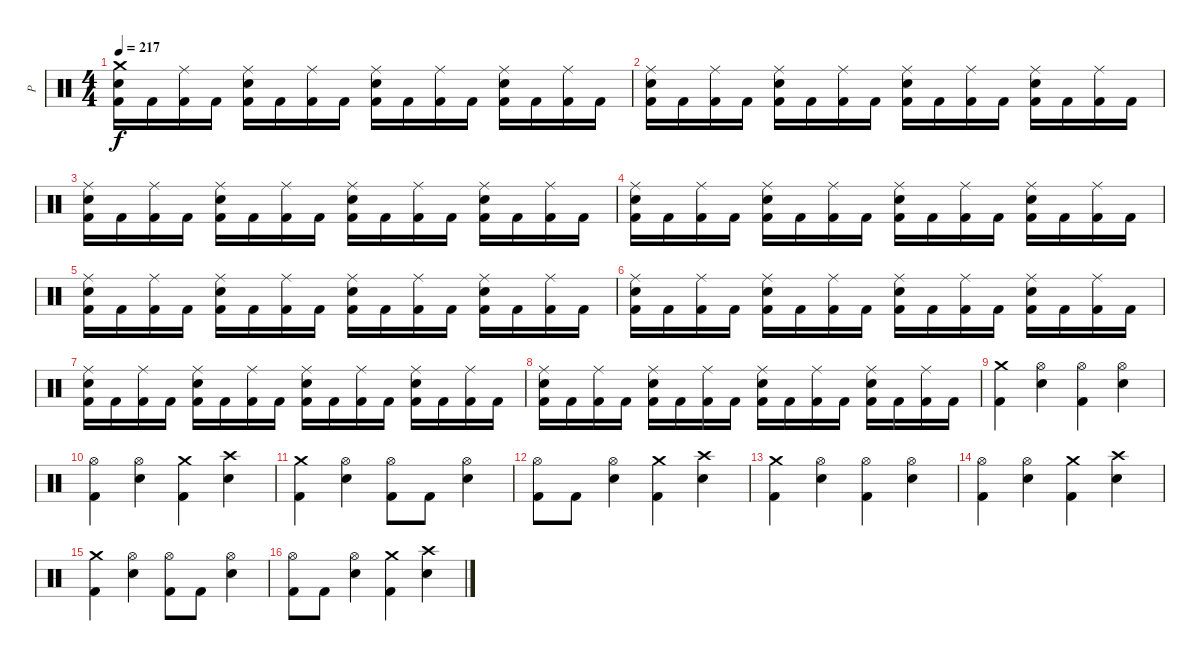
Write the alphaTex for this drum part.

\track ("P" "P") {instrument percussion}
\staff {score}
\articulation defaults
\ts (4 4)
\tempo 217
\clef neutral
\ks c
("Crash medium (hit)" "Electric Snare (hit)" "Kick (hit) 2").16{dy f} "Kick (hit) 2".16 ("Ride (middle)" "Kick (hit) 2").16 "Kick (hit) 2".16 ("Ride (middle)" "Electric Snare (hit)" "Kick (hit) 2").16 "Kick (hit) 2".16 ("Ride (middle)" "Kick (hit) 2").16 "Kick (hit) 2".16 ("Ride (middle)" "Electric Snare (hit)" "Kick (hit) 2").16 "Kick (hit) 2".16 ("Ride (middle)" "Kick (hit) 2").16 "Kick (hit) 2".16 ("Ride (middle)" "Electric Snare (hit)" "Kick (hit) 2").16 "Kick (hit) 2".16 ("Ride (middle)" "Kick (hit) 2").16 "Kick (hit) 2".16 |
("Ride (middle)" "Electric Snare (hit)" "Kick (hit) 2").16 "Kick (hit) 2".16 ("Ride (middle)" "Kick (hit) 2").16 "Kick (hit) 2".16 ("Ride (middle)" "Electric Snare (hit)" "Kick (hit) 2").16 "Kick (hit) 2".16 ("Ride (middle)" "Kick (hit) 2").16 "Kick (hit) 2".16 ("Ride (middle)" "Electric Snare (hit)" "Kick (hit) 2").16 "Kick (hit) 2".16 ("Ride (middle)" "Kick (hit) 2").16 "Kick (hit) 2".16 ("Ride (middle)" "Electric Snare (hit)" "Kick (hit) 2").16 "Kick (hit) 2".16 ("Ride (middle)" "Kick (hit) 2").16 "Kick (hit) 2".16 |
("Ride (middle)" "Electric Snare (hit)" "Kick (hit) 2").16 "Kick (hit) 2".16 ("Ride (middle)" "Kick (hit) 2").16 "Kick (hit) 2".16 ("Ride (middle)" "Electric Snare (hit)" "Kick (hit) 2").16 "Kick (hit) 2".16 ("Ride (middle)" "Kick (hit) 2").16 "Kick (hit) 2".16 ("Ride (middle)" "Electric Snare (hit)" "Kick (hit) 2").16 "Kick (hit) 2".16 ("Ride (middle)" "Kick (hit) 2").16 "Kick (hit) 2".16 ("Ride (middle)" "Electric Snare (hit)" "Kick (hit) 2").16 "Kick (hit) 2".16 ("Ride (middle)" "Kick (hit) 2").16 "Kick (hit) 2".16 |
("Ride (middle)" "Electric Snare (hit)" "Kick (hit) 2").16 "Kick (hit) 2".16 ("Ride (middle)" "Kick (hit) 2").16 "Kick (hit) 2".16 ("Ride (middle)" "Electric Snare (hit)" "Kick (hit) 2").16 "Kick (hit) 2".16 ("Ride (middle)" "Kick (hit) 2").16 "Kick (hit) 2".16 ("Ride (middle)" "Electric Snare (hit)" "Kick (hit) 2").16 "Kick (hit) 2".16 ("Ride (middle)" "Kick (hit) 2").16 "Kick (hit) 2".16 ("Ride (middle)" "Electric Snare (hit)" "Kick (hit) 2").16 "Kick (hit) 2".16 ("Ride (middle)" "Kick (hit) 2").16 "Kick (hit) 2".16 |
("Ride (middle)" "Electric Snare (hit)" "Kick (hit) 2").16 "Kick (hit) 2".16 ("Ride (middle)" "Kick (hit) 2").16 "Kick (hit) 2".16 ("Ride (middle)" "Electric Snare (hit)" "Kick (hit) 2").16 "Kick (hit) 2".16 ("Ride (middle)" "Kick (hit) 2").16 "Kick (hit) 2".16 ("Ride (middle)" "Electric Snare (hit)" "Kick (hit) 2").16 "Kick (hit) 2".16 ("Ride (middle)" "Kick (hit) 2").16 "Kick (hit) 2".16 ("Ride (middle)" "Electric Snare (hit)" "Kick (hit) 2").16 "Kick (hit) 2".16 ("Ride (middle)" "Kick (hit) 2").16 "Kick (hit) 2".16 |
("Ride (middle)" "Electric Snare (hit)" "Kick (hit) 2").16 "Kick (hit) 2".16 ("Ride (middle)" "Kick (hit) 2").16 "Kick (hit) 2".16 ("Ride (middle)" "Electric Snare (hit)" "Kick (hit) 2").16 "Kick (hit) 2".16 ("Ride (middle)" "Kick (hit) 2").16 "Kick (hit) 2".16 ("Ride (middle)" "Electric Snare (hit)" "Kick (hit) 2").16 "Kick (hit) 2".16 ("Ride (middle)" "Kick (hit) 2").16 "Kick (hit) 2".16 ("Ride (middle)" "Electric Snare (hit)" "Kick (hit) 2").16 "Kick (hit) 2".16 ("Ride (middle)" "Kick (hit) 2").16 "Kick (hit) 2".16 |
("Ride (middle)" "Electric Snare (hit)" "Kick (hit) 2").16 "Kick (hit) 2".16 ("Ride (middle)" "Kick (hit) 2").16 "Kick (hit) 2".16 ("Ride (middle)" "Electric Snare (hit)" "Kick (hit) 2").16 "Kick (hit) 2".16 ("Ride (middle)" "Kick (hit) 2").16 "Kick (hit) 2".16 ("Ride (middle)" "Electric Snare (hit)" "Kick (hit) 2").16 "Kick (hit) 2".16 ("Ride (middle)" "Kick (hit) 2").16 "Kick (hit) 2".16 ("Ride (middle)" "Electric Snare (hit)" "Kick (hit) 2").16 "Kick (hit) 2".16 ("Ride (middle)" "Kick (hit) 2").16 "Kick (hit) 2".16 |
("Ride (middle)" "Electric Snare (hit)" "Kick (hit) 2").16 "Kick (hit) 2".16 ("Ride (middle)" "Kick (hit) 2").16 "Kick (hit) 2".16 ("Ride (middle)" "Electric Snare (hit)" "Kick (hit) 2").16 "Kick (hit) 2".16 ("Ride (middle)" "Kick (hit) 2").16 "Kick (hit) 2".16 ("Ride (middle)" "Electric Snare (hit)" "Kick (hit) 2").16 "Kick (hit) 2".16 ("Ride (middle)" "Kick (hit) 2").16 "Kick (hit) 2".16 ("Ride (middle)" "Electric Snare (hit)" "Kick (hit) 2").16 "Kick (hit) 2".16 ("Ride (middle)" "Kick (hit) 2").16 "Kick (hit) 2".16 |
("Crash medium (hit)" "Kick (hit) 2").4 ("Hi-Hat (open)" "Electric Snare (hit)").4 ("Hi-Hat (open)" "Kick (hit) 2").4 ("Hi-Hat (open)" "Electric Snare (hit)").4 |
("Hi-Hat (open)" "Kick (hit) 2").4 ("Hi-Hat (open)" "Electric Snare (hit)").4 ("Crash medium (hit)" "Kick (hit) 2").4 ("Crash high (hit)" "Electric Snare (hit)").4 |
("Crash medium (hit)" "Kick (hit) 2").4 ("Hi-Hat (open)" "Electric Snare (hit)").4 ("Hi-Hat (open)" "Kick (hit) 2").8 "Kick (hit) 2".8 ("Hi-Hat (open)" "Electric Snare (hit)").4 |
("Hi-Hat (open)" "Kick (hit) 2").8 "Kick (hit) 2".8 ("Hi-Hat (open)" "Electric Snare (hit)").4 ("Crash medium (hit)" "Kick (hit) 2").4 ("Crash high (hit)" "Electric Snare (hit)").4 |
("Crash medium (hit)" "Kick (hit) 2").4 ("Hi-Hat (open)" "Electric Snare (hit)").4 ("Hi-Hat (open)" "Kick (hit) 2").4 ("Hi-Hat (open)" "Electric Snare (hit)").4 |
("Hi-Hat (open)" "Kick (hit) 2").4 ("Hi-Hat (open)" "Electric Snare (hit)").4 ("Crash medium (hit)" "Kick (hit) 2").4 ("Crash high (hit)" "Electric Snare (hit)").4 |
("Crash medium (hit)" "Kick (hit) 2").4 ("Hi-Hat (open)" "Electric Snare (hit)").4 ("Hi-Hat (open)" "Kick (hit) 2").8 "Kick (hit) 2".8 ("Hi-Hat (open)" "Electric Snare (hit)").4 |
("Hi-Hat (open)" "Kick (hit) 2").8 "Kick (hit) 2".8 ("Hi-Hat (open)" "Electric Snare (hit)").4 ("Crash medium (hit)" "Kick (hit) 2").4 ("Crash high (hit)" "Electric Snare (hit)").4
